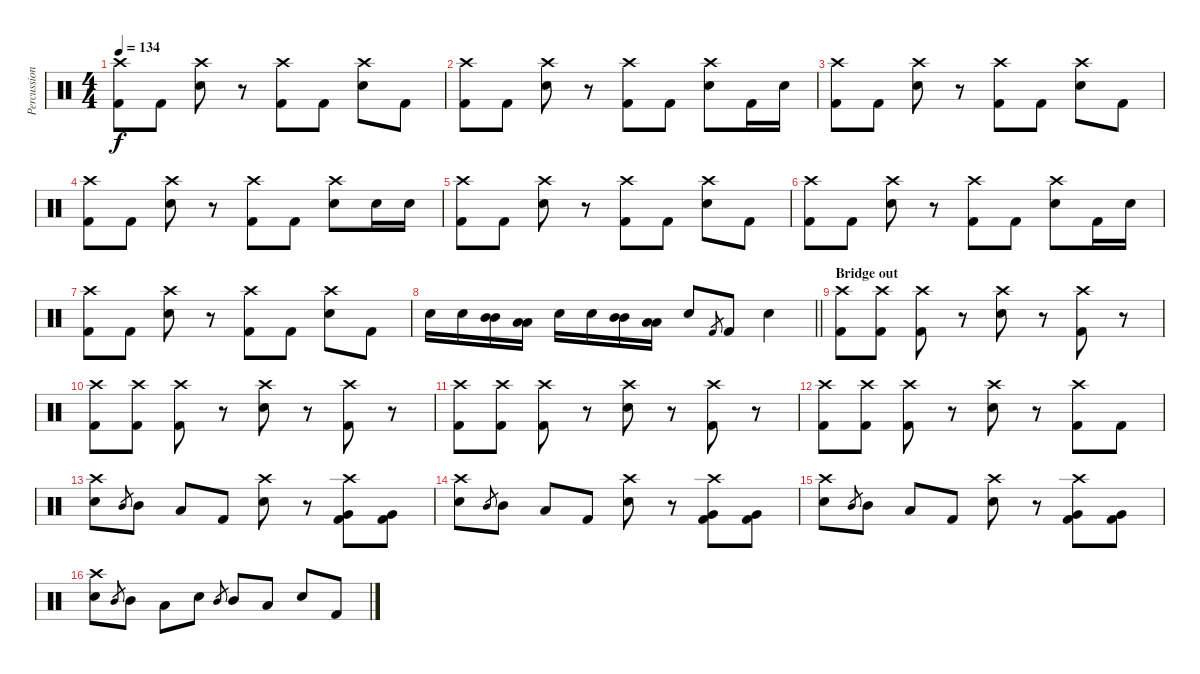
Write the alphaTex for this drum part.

\track ("Percussion" "Percussion") {instrument percussion}
\staff {score}
\articulation defaults
\ts (4 4)
\tempo 134
\clef neutral
\ks c
("Crash high (hit)" "Kick (hit) 2").8{dy f} "Kick (hit) 2".8 ("Crash high (hit)" "Snare (hit) 2").8 r.8 ("Crash high (hit)" "Kick (hit) 2").8 "Kick (hit) 2".8 ("Crash high (hit)" "Snare (hit) 2").8 "Kick (hit) 2".8 |
("Crash high (hit)" "Kick (hit) 2").8 "Kick (hit) 2".8 ("Crash high (hit)" "Snare (hit) 2").8 r.8 ("Crash high (hit)" "Kick (hit) 2").8 "Kick (hit) 2".8 ("Crash high (hit)" "Snare (hit) 2").8 "Kick (hit) 2".16 "Snare (hit) 2".16 |
("Crash high (hit)" "Kick (hit) 2").8 "Kick (hit) 2".8 ("Crash high (hit)" "Snare (hit) 2").8 r.8 ("Crash high (hit)" "Kick (hit) 2").8 "Kick (hit) 2".8 ("Crash high (hit)" "Snare (hit) 2").8 "Kick (hit) 2".8 |
("Crash high (hit)" "Kick (hit) 2").8 "Kick (hit) 2".8 ("Crash high (hit)" "Snare (hit) 2").8 r.8 ("Crash high (hit)" "Kick (hit) 2").8 "Kick (hit) 2".8 ("Crash high (hit)" "Snare (hit) 2").8 "Snare (hit) 2".16 "Snare (hit) 2".16 |
("Crash high (hit)" "Kick (hit) 2").8 "Kick (hit) 2".8 ("Crash high (hit)" "Snare (hit) 2").8 r.8 ("Crash high (hit)" "Kick (hit) 2").8 "Kick (hit) 2".8 ("Crash high (hit)" "Snare (hit) 2").8 "Kick (hit) 2".8 |
("Crash high (hit)" "Kick (hit) 2").8 "Kick (hit) 2".8 ("Crash high (hit)" "Snare (hit) 2").8 r.8 ("Crash high (hit)" "Kick (hit) 2").8 "Kick (hit) 2".8 ("Crash high (hit)" "Snare (hit) 2").8 "Kick (hit) 2".16 "Snare (hit) 2".16 |
("Crash high (hit)" "Kick (hit) 2").8 "Kick (hit) 2".8 ("Crash high (hit)" "Snare (hit) 2").8 r.8 ("Crash high (hit)" "Kick (hit) 2").8 "Kick (hit) 2".8 ("Crash high (hit)" "Snare (hit) 2").8 "Kick (hit) 2".8 |
\barLineRight lightlight "Snare (hit) 2".16 "Snare (hit) 2".16
("Mid Tom (hit)" "Mid Tom (hit)").16 ("Low Tom (hit)" "Low Tom (hit)").16 "Snare (hit) 2".16 "Snare (hit) 2".16 ("Mid Tom (hit)" "Mid Tom (hit)").16 ("Low Tom (hit)" "Low Tom (hit)").16 "Snare (hit) 2".8 "Kick (hit) 2".8{gr} "Kick (hit) 2".8 "Snare (hit) 2".4 |
\section ("" "Bridge out")
("Crash high (hit)" "Kick (hit) 2").8 ("Crash high (hit)" "Kick (hit) 2").8 ("Crash high (hit)" "Kick (hit) 2").8 r.8 ("Crash high (hit)" "Snare (hit) 2").8 r.8 ("Crash high (hit)" "Kick (hit) 2").8 r.8 |
("Crash high (hit)" "Kick (hit) 2").8 ("Crash high (hit)" "Kick (hit) 2").8 ("Crash high (hit)" "Kick (hit) 2").8 r.8 ("Crash high (hit)" "Snare (hit) 2").8 r.8 ("Crash high (hit)" "Kick (hit) 2").8 r.8 |
("Crash high (hit)" "Kick (hit) 2").8 ("Crash high (hit)" "Kick (hit) 2").8 ("Crash high (hit)" "Kick (hit) 2").8 r.8 ("Crash high (hit)" "Snare (hit) 2").8 r.8 ("Crash high (hit)" "Kick (hit) 2").8 r.8 |
("Crash high (hit)" "Kick (hit) 2").8 ("Crash high (hit)" "Kick (hit) 2").8 ("Crash high (hit)" "Kick (hit) 2").8 r.8 ("Crash high (hit)" "Snare (hit) 2").8 r.8 ("Crash high (hit)" "Kick (hit) 2").8 "Kick (hit) 2".8 |
("Crash high (hit)" "Snare (hit) 2").8 "Mid Tom (hit)".8{gr} "Mid Tom (hit)".8 "Low Tom (hit)".8 "Kick (hit) 2".8 ("Crash high (hit)" "Snare (hit) 2").8 r.8 ("Crash high (hit)" "Very Low Tom (hit)" "Kick (hit) 2").8 ("Very Low Tom (hit)" "Kick (hit) 2").8 |
("Crash high (hit)" "Snare (hit) 2").8 "Mid Tom (hit)".8{gr} "Mid Tom (hit)".8 "Low Tom (hit)".8 "Kick (hit) 2".8 ("Crash high (hit)" "Snare (hit) 2").8 r.8 ("Crash high (hit)" "Very Low Tom (hit)" "Kick (hit) 2").8 ("Very Low Tom (hit)" "Kick (hit) 2").8 |
("Crash high (hit)" "Snare (hit) 2").8 "Mid Tom (hit)".8{gr} "Mid Tom (hit)".8 "Low Tom (hit)".8 "Kick (hit) 2".8 ("Crash high (hit)" "Snare (hit) 2").8 r.8 ("Crash high (hit)" "Very Low Tom (hit)" "Kick (hit) 2").8 ("Very Low Tom (hit)" "Kick (hit) 2").8 |
("Crash high (hit)" "Snare (hit) 2").8 "Mid Tom (hit)".8{gr} "Mid Tom (hit)".8 "Low Tom (hit)".8 "Snare (hit) 2".8 "Mid Tom (hit)".8{gr} "Mid Tom (hit)".8 "Low Tom (hit)".8 "Snare (hit) 2".8 "Kick (hit) 2".8
